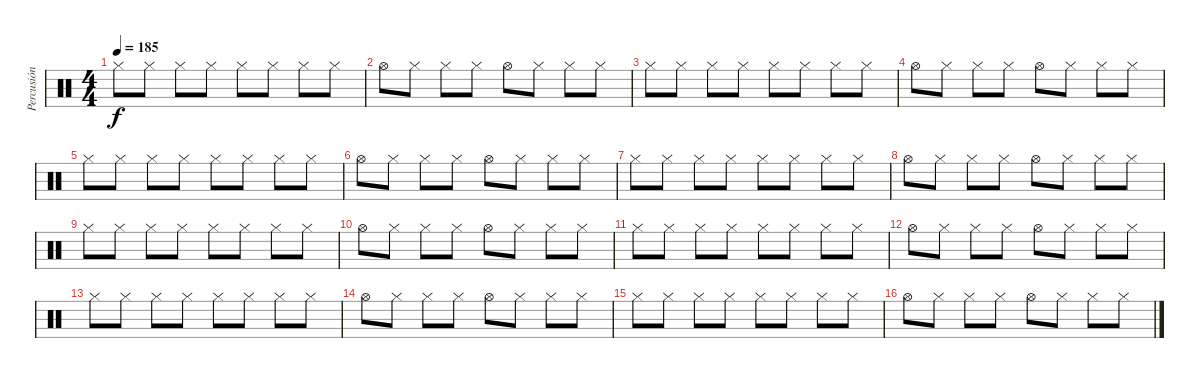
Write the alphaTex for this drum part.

\track ("Percusión" "Percusión") {instrument percussion}
\staff {score}
\articulation defaults
\ts (4 4)
\tempo 185
\clef neutral
\ks c "Hi-Hat (closed)".8{dy f} "Hi-Hat (closed)".8 "Hi-Hat (closed)".8 "Hi-Hat (closed)".8 "Hi-Hat (closed)".8 "Hi-Hat (closed)".8 "Hi-Hat (closed)".8 "Hi-Hat (closed)".8
|
"Hi-Hat (open)".8 "Hi-Hat (closed)".8 "Hi-Hat (closed)".8 "Hi-Hat (closed)".8 "Hi-Hat (open)".8 "Hi-Hat (closed)".8 "Hi-Hat (closed)".8 "Hi-Hat (closed)".8 |
"Hi-Hat (closed)".8 "Hi-Hat (closed)".8 "Hi-Hat (closed)".8 "Hi-Hat (closed)".8 "Hi-Hat (closed)".8 "Hi-Hat (closed)".8 "Hi-Hat (closed)".8 "Hi-Hat (closed)".8 |
"Hi-Hat (open)".8 "Hi-Hat (closed)".8 "Hi-Hat (closed)".8 "Hi-Hat (closed)".8 "Hi-Hat (open)".8 "Hi-Hat (closed)".8 "Hi-Hat (closed)".8 "Hi-Hat (closed)".8 |
"Hi-Hat (closed)".8 "Hi-Hat (closed)".8 "Hi-Hat (closed)".8 "Hi-Hat (closed)".8 "Hi-Hat (closed)".8 "Hi-Hat (closed)".8 "Hi-Hat (closed)".8 "Hi-Hat (closed)".8 |
"Hi-Hat (open)".8 "Hi-Hat (closed)".8 "Hi-Hat (closed)".8 "Hi-Hat (closed)".8 "Hi-Hat (open)".8 "Hi-Hat (closed)".8 "Hi-Hat (closed)".8 "Hi-Hat (closed)".8 |
"Hi-Hat (closed)".8 "Hi-Hat (closed)".8 "Hi-Hat (closed)".8 "Hi-Hat (closed)".8 "Hi-Hat (closed)".8 "Hi-Hat (closed)".8 "Hi-Hat (closed)".8 "Hi-Hat (closed)".8 |
"Hi-Hat (open)".8 "Hi-Hat (closed)".8 "Hi-Hat (closed)".8 "Hi-Hat (closed)".8 "Hi-Hat (open)".8 "Hi-Hat (closed)".8 "Hi-Hat (closed)".8 "Hi-Hat (closed)".8 |
"Hi-Hat (closed)".8 "Hi-Hat (closed)".8 "Hi-Hat (closed)".8 "Hi-Hat (closed)".8 "Hi-Hat (closed)".8 "Hi-Hat (closed)".8 "Hi-Hat (closed)".8 "Hi-Hat (closed)".8 |
"Hi-Hat (open)".8 "Hi-Hat (closed)".8 "Hi-Hat (closed)".8 "Hi-Hat (closed)".8 "Hi-Hat (open)".8 "Hi-Hat (closed)".8 "Hi-Hat (closed)".8 "Hi-Hat (closed)".8 |
"Hi-Hat (closed)".8 "Hi-Hat (closed)".8 "Hi-Hat (closed)".8 "Hi-Hat (closed)".8 "Hi-Hat (closed)".8 "Hi-Hat (closed)".8 "Hi-Hat (closed)".8 "Hi-Hat (closed)".8 |
"Hi-Hat (open)".8 "Hi-Hat (closed)".8 "Hi-Hat (closed)".8 "Hi-Hat (closed)".8 "Hi-Hat (open)".8 "Hi-Hat (closed)".8 "Hi-Hat (closed)".8 "Hi-Hat (closed)".8 |
"Hi-Hat (closed)".8 "Hi-Hat (closed)".8 "Hi-Hat (closed)".8 "Hi-Hat (closed)".8 "Hi-Hat (closed)".8 "Hi-Hat (closed)".8 "Hi-Hat (closed)".8 "Hi-Hat (closed)".8 |
"Hi-Hat (open)".8 "Hi-Hat (closed)".8 "Hi-Hat (closed)".8 "Hi-Hat (closed)".8 "Hi-Hat (open)".8 "Hi-Hat (closed)".8 "Hi-Hat (closed)".8 "Hi-Hat (closed)".8 |
"Hi-Hat (closed)".8 "Hi-Hat (closed)".8 "Hi-Hat (closed)".8 "Hi-Hat (closed)".8 "Hi-Hat (closed)".8 "Hi-Hat (closed)".8 "Hi-Hat (closed)".8 "Hi-Hat (closed)".8 |
"Hi-Hat (open)".8 "Hi-Hat (closed)".8 "Hi-Hat (closed)".8 "Hi-Hat (closed)".8 "Hi-Hat (open)".8 "Hi-Hat (closed)".8 "Hi-Hat (closed)".8 "Hi-Hat (closed)".8
